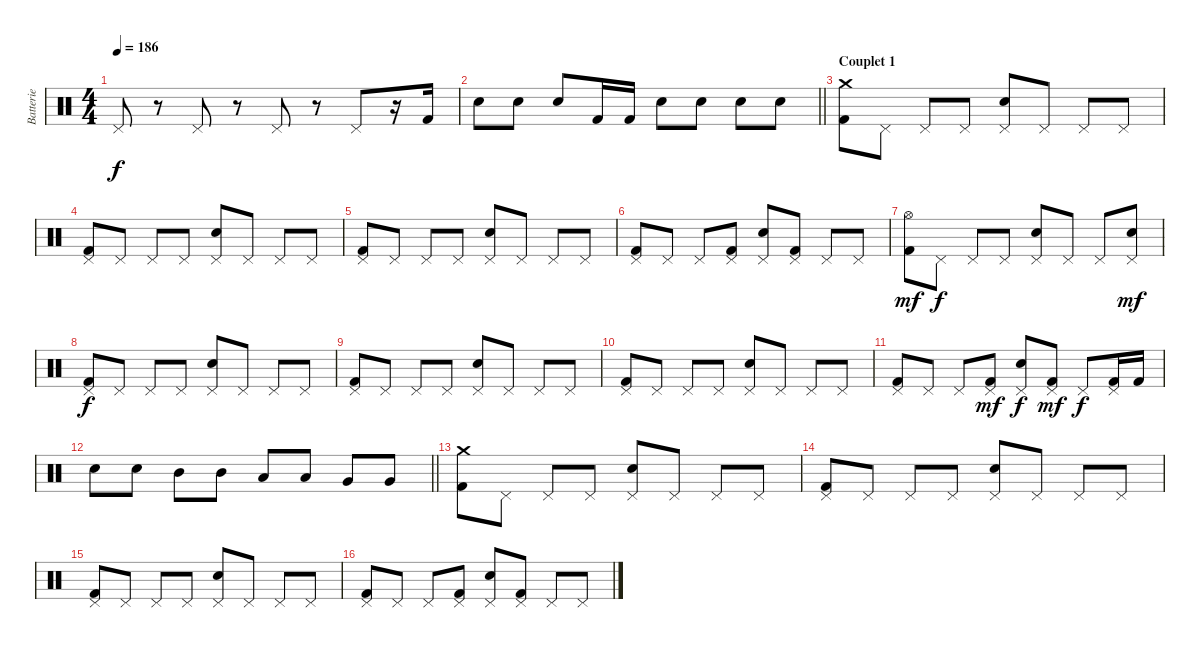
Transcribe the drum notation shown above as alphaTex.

\track ("Batterie" "Batterie") {instrument percussion}
\staff {score}
\articulation defaults
\ts (4 4)
\tempo 186
\clef neutral
\ks c "Pedal Hi-Hat (hit)".8{dy f}
r.8 "Pedal Hi-Hat (hit)".8 r.8 "Pedal Hi-Hat (hit)".8 r.8 "Pedal Hi-Hat (hit)".8 r.16 "Kick (hit) 2".16 |
\barLineRight lightlight "Electric Snare (hit)".8 "Electric Snare (hit)".8 "Electric Snare (hit)".8 "Kick (hit) 2".16 "Kick (hit) 2".16 "Electric Snare (hit)".8 "Electric Snare (hit)".8 "Electric Snare (hit)".8 "Electric Snare (hit)".8
|
\section ("" "Couplet 1")
("Kick (hit) 2" "Crash medium (hit)").8 "Pedal Hi-Hat (hit)".8 "Pedal Hi-Hat (hit)".8 "Pedal Hi-Hat (hit)".8 ("Electric Snare (hit)" "Pedal Hi-Hat (hit)").8 "Pedal Hi-Hat (hit)".8 "Pedal Hi-Hat (hit)".8 "Pedal Hi-Hat (hit)".8 |
("Kick (hit) 2" "Pedal Hi-Hat (hit)").8 "Pedal Hi-Hat (hit)".8 "Pedal Hi-Hat (hit)".8 "Pedal Hi-Hat (hit)".8 ("Electric Snare (hit)" "Pedal Hi-Hat (hit)").8 "Pedal Hi-Hat (hit)".8 "Pedal Hi-Hat (hit)".8 "Pedal Hi-Hat (hit)".8 |
("Kick (hit) 2" "Pedal Hi-Hat (hit)").8 "Pedal Hi-Hat (hit)".8 "Pedal Hi-Hat (hit)".8 "Pedal Hi-Hat (hit)".8 ("Electric Snare (hit)" "Pedal Hi-Hat (hit)").8 "Pedal Hi-Hat (hit)".8 "Pedal Hi-Hat (hit)".8 "Pedal Hi-Hat (hit)".8 |
("Kick (hit) 2" "Pedal Hi-Hat (hit)").8 "Pedal Hi-Hat (hit)".8 "Pedal Hi-Hat (hit)".8 ("Kick (hit) 2" "Pedal Hi-Hat (hit)").8 ("Electric Snare (hit)" "Pedal Hi-Hat (hit)").8 ("Kick (hit) 2" "Pedal Hi-Hat (hit)").8 "Pedal Hi-Hat (hit)".8 "Pedal Hi-Hat (hit)".8 |
("Kick (hit) 2" "Hi-Hat (open)").8{dy mf} "Pedal Hi-Hat (hit)".8{dy f} "Pedal Hi-Hat (hit)".8 "Pedal Hi-Hat (hit)".8 ("Electric Snare (hit)" "Pedal Hi-Hat (hit)").8 "Pedal Hi-Hat (hit)".8 "Pedal Hi-Hat (hit)".8 ("Electric Snare (hit)" "Pedal Hi-Hat (hit)").8{dy mf} |
("Kick (hit) 2" "Pedal Hi-Hat (hit)").8{dy f} "Pedal Hi-Hat (hit)".8 "Pedal Hi-Hat (hit)".8 "Pedal Hi-Hat (hit)".8 ("Electric Snare (hit)" "Pedal Hi-Hat (hit)").8 "Pedal Hi-Hat (hit)".8 "Pedal Hi-Hat (hit)".8 "Pedal Hi-Hat (hit)".8 |
("Kick (hit) 2" "Pedal Hi-Hat (hit)").8 "Pedal Hi-Hat (hit)".8 "Pedal Hi-Hat (hit)".8 "Pedal Hi-Hat (hit)".8 ("Electric Snare (hit)" "Pedal Hi-Hat (hit)").8 "Pedal Hi-Hat (hit)".8 "Pedal Hi-Hat (hit)".8 "Pedal Hi-Hat (hit)".8 |
("Kick (hit) 2" "Pedal Hi-Hat (hit)").8 "Pedal Hi-Hat (hit)".8 "Pedal Hi-Hat (hit)".8 "Pedal Hi-Hat (hit)".8 ("Electric Snare (hit)" "Pedal Hi-Hat (hit)").8 "Pedal Hi-Hat (hit)".8 "Pedal Hi-Hat (hit)".8 "Pedal Hi-Hat (hit)".8 |
("Kick (hit) 2" "Pedal Hi-Hat (hit)").8 "Pedal Hi-Hat (hit)".8 "Pedal Hi-Hat (hit)".8 ("Kick (hit) 2" "Pedal Hi-Hat (hit)").8{dy mf} ("Electric Snare (hit)" "Pedal Hi-Hat (hit)").8{dy f} ("Kick (hit) 2" "Pedal Hi-Hat (hit)").8{dy mf} "Pedal Hi-Hat (hit)".8{dy f} ("Kick (hit) 2" "Pedal Hi-Hat (hit)").16 "Kick (hit) 2".16 |
\barLineRight lightlight "Electric Snare (hit)".8 "Electric Snare (hit)".8 "Mid Tom (hit)".8 "Mid Tom (hit)".8 "Low Tom (hit)".8 "Low Tom (hit)".8 "Very Low Tom (hit)".8 "Very Low Tom (hit)".8
|
("Kick (hit) 2" "Crash medium (hit)").8 "Pedal Hi-Hat (hit)".8 "Pedal Hi-Hat (hit)".8 "Pedal Hi-Hat (hit)".8 ("Electric Snare (hit)" "Pedal Hi-Hat (hit)").8 "Pedal Hi-Hat (hit)".8 "Pedal Hi-Hat (hit)".8 "Pedal Hi-Hat (hit)".8 |
("Kick (hit) 2" "Pedal Hi-Hat (hit)").8 "Pedal Hi-Hat (hit)".8 "Pedal Hi-Hat (hit)".8 "Pedal Hi-Hat (hit)".8 ("Electric Snare (hit)" "Pedal Hi-Hat (hit)").8 "Pedal Hi-Hat (hit)".8 "Pedal Hi-Hat (hit)".8 "Pedal Hi-Hat (hit)".8 |
("Kick (hit) 2" "Pedal Hi-Hat (hit)").8 "Pedal Hi-Hat (hit)".8 "Pedal Hi-Hat (hit)".8 "Pedal Hi-Hat (hit)".8 ("Electric Snare (hit)" "Pedal Hi-Hat (hit)").8 "Pedal Hi-Hat (hit)".8 "Pedal Hi-Hat (hit)".8 "Pedal Hi-Hat (hit)".8 |
("Kick (hit) 2" "Pedal Hi-Hat (hit)").8 "Pedal Hi-Hat (hit)".8 "Pedal Hi-Hat (hit)".8 ("Kick (hit) 2" "Pedal Hi-Hat (hit)").8 ("Electric Snare (hit)" "Pedal Hi-Hat (hit)").8 ("Kick (hit) 2" "Pedal Hi-Hat (hit)").8 "Pedal Hi-Hat (hit)".8 "Pedal Hi-Hat (hit)".8
